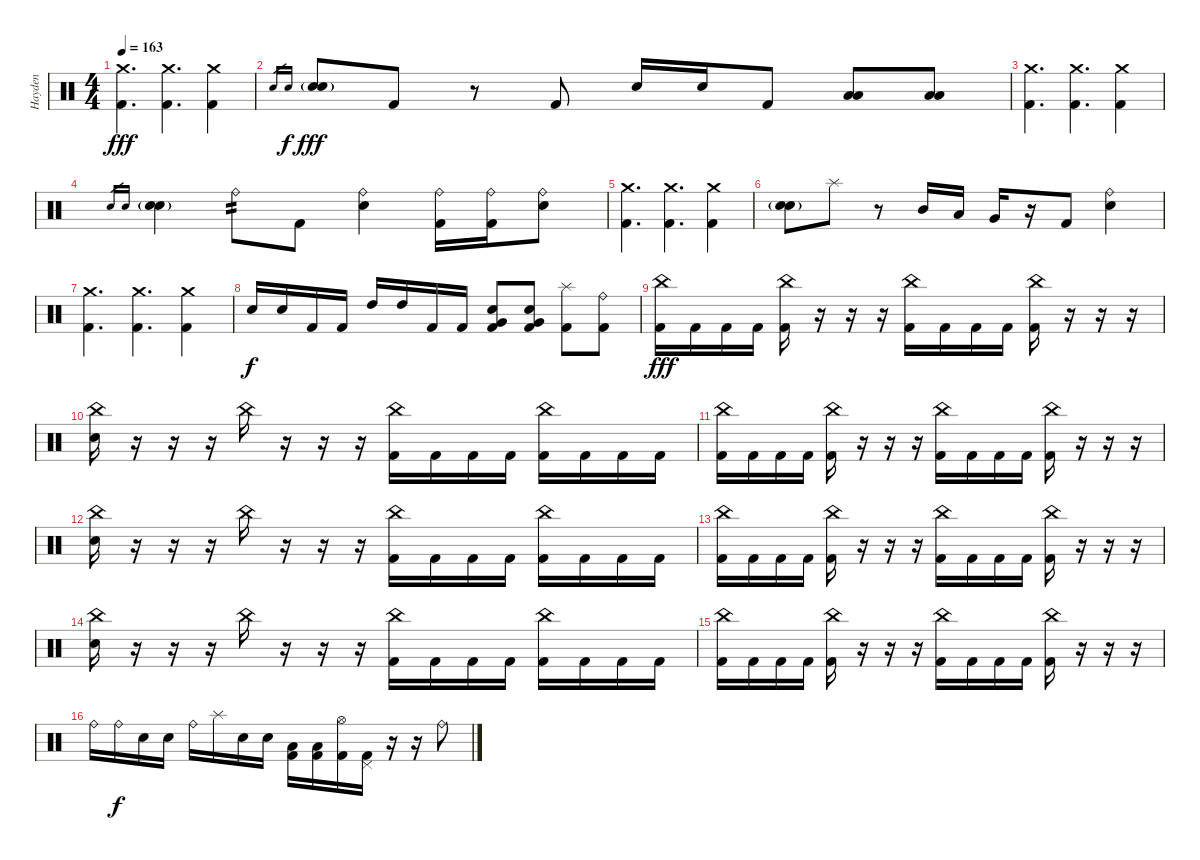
\track ("Hayden" "Hayden") {instrument percussion}
\staff {score}
\articulation defaults
\ts (4 4)
\tempo 163
\clef neutral
\ks c
("Crash medium (hit)" "Kick (hit) 2").4{d dy fff} ("Crash medium (hit)" "Kick (hit) 2").4{d} ("Crash medium (hit)" "Kick (hit) 2").4 |
"Electric Snare (hit)".16{gr} "Snare (hit) 2".16{gr dy f} ("Electric Snare (hit)" "Snare (hit) 2"{g}).8{dy fff} "Kick (hit) 2".8 r.8 "Kick (hit) 2".8 "Electric Snare (hit)".16 "Electric Snare (hit)".16 "Kick (hit) 2".8 ("Low Tom (hit)" "Low Floor Tom (hit)").8 ("Low Tom (hit)" "Low Floor Tom (hit)").8 |
("Crash medium (hit)" "Kick (hit) 2").4{d} ("Crash medium (hit)" "Kick (hit) 2").4{d} ("Crash medium (hit)" "Kick (hit) 2").4 |
"Electric Snare (hit)".16{gr} "Snare (hit) 2".16{gr} ("Electric Snare (hit)" "Snare (hit) 2"{g}).4 "Ride (bell)".8{tp 2} "Kick (hit) 2".8 ("Ride (bell)" "Electric Snare (hit)").4 ("Ride (bell)" "Kick (hit) 2").16 ("Ride (bell)" "Kick (hit) 2").16 ("Ride (bell)" "Electric Snare (hit)").8 |
("Crash medium (hit)" "Kick (hit) 2").4{d} ("Crash medium (hit)" "Kick (hit) 2").4{d} ("Crash medium (hit)" "Kick (hit) 2").4 |
("Electric Snare (hit)" "Snare (hit) 2"{g}).8 "Splash (hit)".8 r.8 "Mid Tom (hit)".16 "Low Tom (hit)".16 "Very Low Tom (hit)".16 r.16 "Kick (hit) 2".8 ("Ride (bell)" "Electric Snare (hit)").4 |
("Crash medium (hit)" "Kick (hit) 2").4{d} ("Crash medium (hit)" "Kick (hit) 2").4{d} ("Crash medium (hit)" "Kick (hit) 2").4 |
"Electric Snare (hit)".16{dy f} "Electric Snare (hit)".16 "Kick (hit) 2".16 "Kick (hit) 2".16 "High Tom (hit)".16 "High Tom (hit)".16 "Kick (hit) 2".16 "Kick (hit) 2".16 ("Snare (hit) 2" "Very Low Tom (hit)" "Kick (hit) 2").8 ("Snare (hit) 2" "Very Low Tom (hit)" "Kick (hit) 2").8 ("Splash (hit)" "Kick (hit) 2").8 ("Ride (bell)" "Kick (hit) 2").8 |
("China (hit)" "Kick (hit) 2").16{dy fff} "Kick (hit) 2".16 "Kick (hit) 2".16 "Kick (hit) 2".16 ("China (hit)" "Kick (hit) 2").16 r.16 r.16 r.16 ("China (hit)" "Kick (hit) 2").16 "Kick (hit) 2".16 "Kick (hit) 2".16 "Kick (hit) 2".16 ("China (hit)" "Kick (hit) 2").16 r.16 r.16 r.16 |
("China (hit)" "Electric Snare (hit)").16 r.16 r.16 r.16 "China (hit)".16 r.16 r.16 r.16 ("China (hit)" "Kick (hit) 2").16 "Kick (hit) 2".16 "Kick (hit) 2".16 "Kick (hit) 2".16 ("China (hit)" "Kick (hit) 2").16 "Kick (hit) 2".16 "Kick (hit) 2".16 "Kick (hit) 2".16 |
("China (hit)" "Kick (hit) 2").16 "Kick (hit) 2".16 "Kick (hit) 2".16 "Kick (hit) 2".16 ("China (hit)" "Kick (hit) 2").16 r.16 r.16 r.16 ("China (hit)" "Kick (hit) 2").16 "Kick (hit) 2".16 "Kick (hit) 2".16 "Kick (hit) 2".16 ("China (hit)" "Kick (hit) 2").16 r.16 r.16 r.16 |
("China (hit)" "Electric Snare (hit)").16 r.16 r.16 r.16 "China (hit)".16 r.16 r.16 r.16 ("China (hit)" "Kick (hit) 2").16 "Kick (hit) 2".16 "Kick (hit) 2".16 "Kick (hit) 2".16 ("China (hit)" "Kick (hit) 2").16 "Kick (hit) 2".16 "Kick (hit) 2".16 "Kick (hit) 2".16 |
("China (hit)" "Kick (hit) 2").16 "Kick (hit) 2".16 "Kick (hit) 2".16 "Kick (hit) 2".16 ("China (hit)" "Kick (hit) 2").16 r.16 r.16 r.16 ("China (hit)" "Kick (hit) 2").16 "Kick (hit) 2".16 "Kick (hit) 2".16 "Kick (hit) 2".16 ("China (hit)" "Kick (hit) 2").16 r.16 r.16 r.16 |
("China (hit)" "Electric Snare (hit)").16 r.16 r.16 r.16 "China (hit)".16 r.16 r.16 r.16 ("China (hit)" "Kick (hit) 2").16 "Kick (hit) 2".16 "Kick (hit) 2".16 "Kick (hit) 2".16 ("China (hit)" "Kick (hit) 2").16 "Kick (hit) 2".16 "Kick (hit) 2".16 "Kick (hit) 2".16 |
("China (hit)" "Kick (hit) 2").16 "Kick (hit) 2".16 "Kick (hit) 2".16 "Kick (hit) 2".16 ("China (hit)" "Kick (hit) 2").16 r.16 r.16 r.16 ("China (hit)" "Kick (hit) 2").16 "Kick (hit) 2".16 "Kick (hit) 2".16 "Kick (hit) 2".16 ("China (hit)" "Kick (hit) 2").16 r.16 r.16 r.16 |
"Ride (bell)".16 "Ride (bell)".16{dy f} "Electric Snare (hit)".16 "Electric Snare (hit)".16 "Ride (bell)".16 "Splash (hit)".16 "Electric Snare (hit)".16 "Electric Snare (hit)".16 ("Low Tom (hit)" "Kick (hit) 2").16 ("Low Tom (hit)" "Kick (hit) 2").16 ("Hi-Hat (open)" "Kick (hit) 2").16 ("Pedal Hi-Hat (hit)" "Kick (hit) 2").16 r.16 r.16 "Ride (bell)".8
